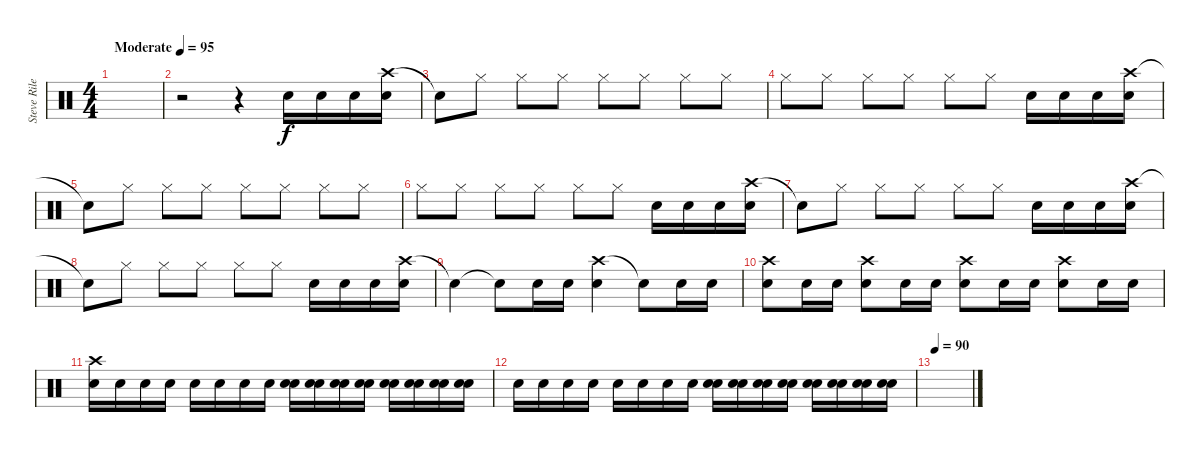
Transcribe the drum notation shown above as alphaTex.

\track ("Steve Riley" "Steve Rile") {instrument percussion}
\staff {score}
\articulation defaults
\ts (4 4)
\tempo (95 "Moderate")
\clef neutral
\ks c
|
r.2 r.4 "Electric Snare (hit)".16 "Electric Snare (hit)".16 "Electric Snare (hit)".16 ("Crash high (hit)" "Electric Snare (hit)").16 |
"Snare (hit)"{t}.8 "Hi-Hat (closed)".8 "Hi-Hat (closed)".8 "Hi-Hat (closed)".8 "Hi-Hat (closed)".8 "Hi-Hat (closed)".8 "Hi-Hat (closed)".8 "Hi-Hat (closed)".8 |
"Hi-Hat (closed)".8 "Hi-Hat (closed)".8 "Hi-Hat (closed)".8 "Hi-Hat (closed)".8 "Hi-Hat (closed)".8 "Hi-Hat (closed)".8 "Electric Snare (hit)".16 "Electric Snare (hit)".16 "Electric Snare (hit)".16 ("Crash high (hit)" "Electric Snare (hit)").16 |
"Snare (hit)"{t}.8 "Hi-Hat (closed)".8 "Hi-Hat (closed)".8 "Hi-Hat (closed)".8 "Hi-Hat (closed)".8 "Hi-Hat (closed)".8 "Hi-Hat (closed)".8 "Hi-Hat (closed)".8 |
"Hi-Hat (closed)".8 "Hi-Hat (closed)".8 "Hi-Hat (closed)".8 "Hi-Hat (closed)".8 "Hi-Hat (closed)".8 "Hi-Hat (closed)".8 "Electric Snare (hit)".16 "Electric Snare (hit)".16 "Electric Snare (hit)".16 ("Crash high (hit)" "Electric Snare (hit)").16 |
"Snare (hit)"{t}.8 "Hi-Hat (closed)".8 "Hi-Hat (closed)".8 "Hi-Hat (closed)".8 "Hi-Hat (closed)".8 "Hi-Hat (closed)".8 "Electric Snare (hit)".16 "Electric Snare (hit)".16 "Electric Snare (hit)".16 ("Crash high (hit)" "Electric Snare (hit)").16 |
"Snare (hit)"{t}.8 "Hi-Hat (closed)".8 "Hi-Hat (closed)".8 "Hi-Hat (closed)".8 "Hi-Hat (closed)".8 "Hi-Hat (closed)".8 "Electric Snare (hit)".16 "Electric Snare (hit)".16 "Electric Snare (hit)".16 ("Crash high (hit)" "Electric Snare (hit)").16 |
"Snare (hit)"{t}.4 "Snare (hit)"{t}.8 "Electric Snare (hit)".16 "Electric Snare (hit)".16 ("Crash high (hit)" "Electric Snare (hit)").4 "Snare (hit)"{t}.8 "Electric Snare (hit)".16 "Electric Snare (hit)".16 |
("Crash high (hit)" "Electric Snare (hit)").8 "Electric Snare (hit)".16 "Electric Snare (hit)".16 ("Crash high (hit)" "Electric Snare (hit)").8 "Electric Snare (hit)".16 "Electric Snare (hit)".16 ("Crash high (hit)" "Electric Snare (hit)").8 "Electric Snare (hit)".16 "Electric Snare (hit)".16 ("Crash high (hit)" "Electric Snare (hit)").8 "Electric Snare (hit)".16 "Electric Snare (hit)".16 |
("Crash high (hit)" "Electric Snare (hit)").16 "Electric Snare (hit)".16 "Electric Snare (hit)".16 "Electric Snare (hit)".16 "Electric Snare (hit)".16 "Electric Snare (hit)".16 "Electric Snare (hit)".16 "Electric Snare (hit)".16 ("Electric Snare (hit)" "Snare (hit) 2").16 ("Electric Snare (hit)" "Snare (hit) 2").16 ("Electric Snare (hit)" "Snare (hit) 2").16 ("Electric Snare (hit)" "Snare (hit) 2").16 ("Electric Snare (hit)" "Snare (hit) 2").16 ("Electric Snare (hit)" "Snare (hit) 2").16 ("Electric Snare (hit)" "Snare (hit) 2").16 ("Electric Snare (hit)" "Snare (hit) 2").16 |
"Electric Snare (hit)".16 "Electric Snare (hit)".16 "Electric Snare (hit)".16 "Electric Snare (hit)".16 "Electric Snare (hit)".16 "Electric Snare (hit)".16 "Electric Snare (hit)".16 "Electric Snare (hit)".16 ("Electric Snare (hit)" "Snare (hit) 2").16 ("Electric Snare (hit)" "Snare (hit) 2").16 ("Electric Snare (hit)" "Snare (hit) 2").16 ("Electric Snare (hit)" "Snare (hit) 2").16 ("Electric Snare (hit)" "Snare (hit) 2").16 ("Electric Snare (hit)" "Snare (hit) 2").16 ("Electric Snare (hit)" "Snare (hit) 2").16 ("Electric Snare (hit)" "Snare (hit) 2").16 |
\tempo 90
